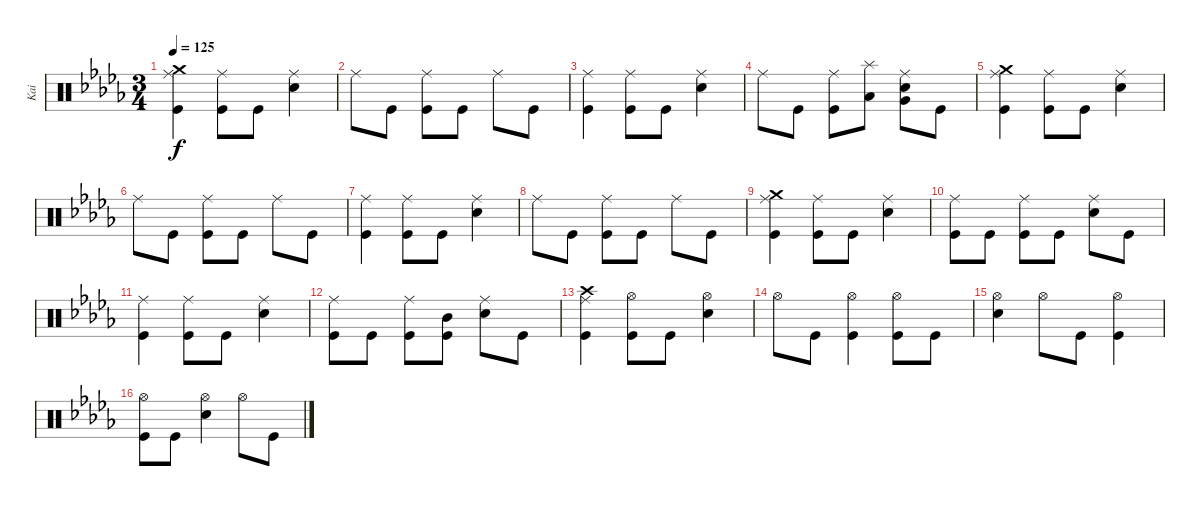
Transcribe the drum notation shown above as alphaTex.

\track ("Kai" "Kai") {instrument percussion}
\staff {score}
\articulation defaults
\ts (3 4)
\tempo 125
\clef neutral
\ks bbminor
("Crash medium (hit)" "Kick (hit)" "Ride (middle)").4{dy f} ("Kick (hit)" "Ride (middle)").8 "Kick (hit)".8 ("Snare (hit) 2" "Ride (middle)").4 |
"Ride (middle)".8 "Kick (hit)".8 ("Kick (hit)" "Ride (middle)").8 "Kick (hit)".8 "Ride (middle)".8 "Kick (hit)".8 |
("Kick (hit)" "Ride (middle)").4 ("Kick (hit)" "Ride (middle)").8 "Kick (hit)".8 ("Snare (hit) 2" "Ride (middle)").4 |
"Ride (middle)".8 "Kick (hit)".8 ("Kick (hit)" "Ride (middle)").8 ("Splash (hit)" "Low Tom (hit)").8 ("Snare (hit) 2" "Ride (middle)" "Very Low Tom (hit)").8 "Kick (hit)".8 |
("Crash medium (hit)" "Kick (hit)" "Ride (middle)").4 ("Kick (hit)" "Ride (middle)").8 "Kick (hit)".8 ("Snare (hit) 2" "Ride (middle)").4 |
"Ride (middle)".8 "Kick (hit)".8 ("Kick (hit)" "Ride (middle)").8 "Kick (hit)".8 "Ride (middle)".8 "Kick (hit)".8 |
("Kick (hit)" "Ride (middle)").4 ("Kick (hit)" "Ride (middle)").8 "Kick (hit)".8 ("Snare (hit) 2" "Ride (middle)").4 |
"Ride (middle)".8 "Kick (hit)".8 ("Kick (hit)" "Ride (middle)").8 "Kick (hit)".8 "Ride (middle)".8 "Kick (hit)".8 |
("Crash medium (hit)" "Kick (hit)" "Ride (middle)").4 ("Kick (hit)" "Ride (middle)").8 "Kick (hit)".8 ("Snare (hit) 2" "Ride (middle)").4 |
("Kick (hit)" "Ride (middle)").8 "Kick (hit)".8 ("Kick (hit)" "Ride (middle)").8 "Kick (hit)".8 ("Snare (hit) 2" "Ride (middle)").8 "Kick (hit)".8 |
("Kick (hit)" "Ride (middle)").4 ("Kick (hit)" "Ride (middle)").8 "Kick (hit)".8 ("Snare (hit) 2" "Ride (middle)").4 |
("Kick (hit)" "Ride (middle)").8 "Kick (hit)".8 ("Kick (hit)" "Ride (middle)").8 ("Kick (hit)" "Mid Tom (hit)").8 ("Snare (hit) 2" "Ride (middle)").8 "Kick (hit)".8 |
("Kick (hit)" "Ride (middle)" "Crash high (hit)").4 ("Kick (hit)" "Hi-Hat (open)").8 "Kick (hit)".8 ("Snare (hit) 2" "Hi-Hat (open)").4 |
"Hi-Hat (open)".8 "Kick (hit)".8 ("Kick (hit)" "Hi-Hat (open)").4 ("Kick (hit)" "Hi-Hat (open)").8 "Kick (hit)".8 |
("Snare (hit) 2" "Hi-Hat (open)").4 "Hi-Hat (open)".8 "Kick (hit)".8 ("Kick (hit)" "Hi-Hat (open)").4 |
("Kick (hit)" "Hi-Hat (open)").8 "Kick (hit)".8 ("Snare (hit) 2" "Hi-Hat (open)").4 "Hi-Hat (open)".8 "Kick (hit)".8
